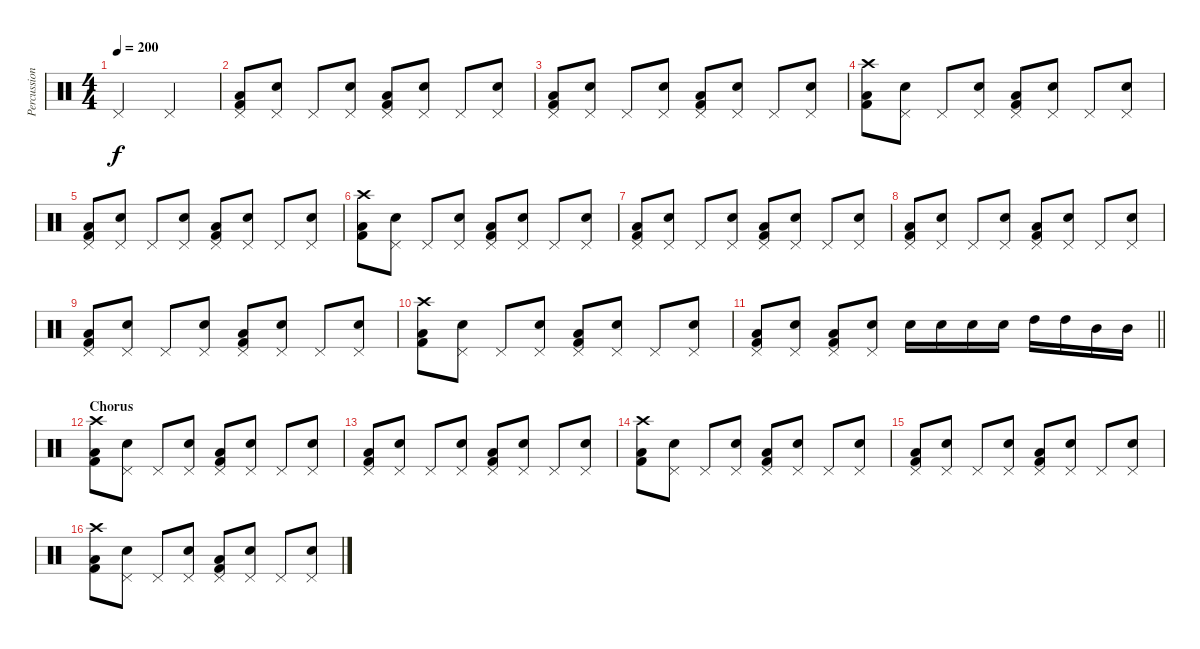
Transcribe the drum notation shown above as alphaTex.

\track ("Percussion" "Percussion") {instrument percussion}
\staff {score}
\articulation defaults
\ts (4 4)
\tempo 200
\clef neutral
\ks c "Pedal Hi-Hat (hit)".2{dy f} "Pedal Hi-Hat (hit)".2
|
("Kick (hit) 2" "Low Floor Tom (hit)" "Pedal Hi-Hat (hit)").8 ("Electric Snare (hit)" "Pedal Hi-Hat (hit)").8 "Pedal Hi-Hat (hit)".8 ("Electric Snare (hit)" "Pedal Hi-Hat (hit)").8 ("Kick (hit) 2" "Low Floor Tom (hit)" "Pedal Hi-Hat (hit)").8 ("Electric Snare (hit)" "Pedal Hi-Hat (hit)").8 "Pedal Hi-Hat (hit)".8 ("Electric Snare (hit)" "Pedal Hi-Hat (hit)").8 |
("Kick (hit) 2" "Low Floor Tom (hit)" "Pedal Hi-Hat (hit)").8 ("Electric Snare (hit)" "Pedal Hi-Hat (hit)").8 "Pedal Hi-Hat (hit)".8 ("Electric Snare (hit)" "Pedal Hi-Hat (hit)").8 ("Kick (hit) 2" "Low Floor Tom (hit)" "Pedal Hi-Hat (hit)").8 ("Electric Snare (hit)" "Pedal Hi-Hat (hit)").8 "Pedal Hi-Hat (hit)".8 ("Electric Snare (hit)" "Pedal Hi-Hat (hit)").8 |
("Kick (hit) 2" "Low Floor Tom (hit)" "Crash high (hit)").8 ("Electric Snare (hit)" "Pedal Hi-Hat (hit)").8 "Pedal Hi-Hat (hit)".8 ("Electric Snare (hit)" "Pedal Hi-Hat (hit)").8 ("Kick (hit) 2" "Low Floor Tom (hit)" "Pedal Hi-Hat (hit)").8 ("Electric Snare (hit)" "Pedal Hi-Hat (hit)").8 "Pedal Hi-Hat (hit)".8 ("Electric Snare (hit)" "Pedal Hi-Hat (hit)").8 |
("Kick (hit) 2" "Low Floor Tom (hit)" "Pedal Hi-Hat (hit)").8 ("Electric Snare (hit)" "Pedal Hi-Hat (hit)").8 "Pedal Hi-Hat (hit)".8 ("Electric Snare (hit)" "Pedal Hi-Hat (hit)").8 ("Kick (hit) 2" "Low Floor Tom (hit)" "Pedal Hi-Hat (hit)").8 ("Electric Snare (hit)" "Pedal Hi-Hat (hit)").8 "Pedal Hi-Hat (hit)".8 ("Electric Snare (hit)" "Pedal Hi-Hat (hit)").8 |
("Kick (hit) 2" "Low Floor Tom (hit)" "Crash high (hit)").8 ("Electric Snare (hit)" "Pedal Hi-Hat (hit)").8 "Pedal Hi-Hat (hit)".8 ("Electric Snare (hit)" "Pedal Hi-Hat (hit)").8 ("Kick (hit) 2" "Low Floor Tom (hit)" "Pedal Hi-Hat (hit)").8 ("Electric Snare (hit)" "Pedal Hi-Hat (hit)").8 "Pedal Hi-Hat (hit)".8 ("Electric Snare (hit)" "Pedal Hi-Hat (hit)").8 |
("Kick (hit) 2" "Low Floor Tom (hit)" "Pedal Hi-Hat (hit)").8 ("Electric Snare (hit)" "Pedal Hi-Hat (hit)").8 "Pedal Hi-Hat (hit)".8 ("Electric Snare (hit)" "Pedal Hi-Hat (hit)").8 ("Kick (hit) 2" "Low Floor Tom (hit)" "Pedal Hi-Hat (hit)").8 ("Electric Snare (hit)" "Pedal Hi-Hat (hit)").8 "Pedal Hi-Hat (hit)".8 ("Electric Snare (hit)" "Pedal Hi-Hat (hit)").8 |
("Kick (hit) 2" "Low Floor Tom (hit)" "Pedal Hi-Hat (hit)").8 ("Electric Snare (hit)" "Pedal Hi-Hat (hit)").8 "Pedal Hi-Hat (hit)".8 ("Electric Snare (hit)" "Pedal Hi-Hat (hit)").8 ("Kick (hit) 2" "Low Floor Tom (hit)" "Pedal Hi-Hat (hit)").8 ("Electric Snare (hit)" "Pedal Hi-Hat (hit)").8 "Pedal Hi-Hat (hit)".8 ("Electric Snare (hit)" "Pedal Hi-Hat (hit)").8 |
("Kick (hit) 2" "Low Floor Tom (hit)" "Pedal Hi-Hat (hit)").8 ("Electric Snare (hit)" "Pedal Hi-Hat (hit)").8 "Pedal Hi-Hat (hit)".8 ("Electric Snare (hit)" "Pedal Hi-Hat (hit)").8 ("Kick (hit) 2" "Low Floor Tom (hit)" "Pedal Hi-Hat (hit)").8 ("Electric Snare (hit)" "Pedal Hi-Hat (hit)").8 "Pedal Hi-Hat (hit)".8 ("Electric Snare (hit)" "Pedal Hi-Hat (hit)").8 |
("Kick (hit) 2" "Low Floor Tom (hit)" "Crash high (hit)").8 ("Electric Snare (hit)" "Pedal Hi-Hat (hit)").8 "Pedal Hi-Hat (hit)".8 ("Electric Snare (hit)" "Pedal Hi-Hat (hit)").8 ("Kick (hit) 2" "Low Floor Tom (hit)" "Pedal Hi-Hat (hit)").8 ("Electric Snare (hit)" "Pedal Hi-Hat (hit)").8 "Pedal Hi-Hat (hit)".8 ("Electric Snare (hit)" "Pedal Hi-Hat (hit)").8 |
\barLineRight lightlight
("Kick (hit) 2" "Low Floor Tom (hit)" "Pedal Hi-Hat (hit)").8 ("Electric Snare (hit)" "Pedal Hi-Hat (hit)").8 ("Kick (hit) 2" "Low Floor Tom (hit)" "Pedal Hi-Hat (hit)").8 ("Electric Snare (hit)" "Pedal Hi-Hat (hit)").8 "Electric Snare (hit)".16 "Electric Snare (hit)".16 "Electric Snare (hit)".16 "Electric Snare (hit)".16 "High Tom (hit)".16 "High Tom (hit)".16 "Mid Tom (hit)".16 "Mid Tom (hit)".16 |
\section ("" "Chorus")
("Kick (hit) 2" "Low Floor Tom (hit)" "Crash high (hit)").8 ("Electric Snare (hit)" "Pedal Hi-Hat (hit)").8 "Pedal Hi-Hat (hit)".8 ("Electric Snare (hit)" "Pedal Hi-Hat (hit)").8 ("Kick (hit) 2" "Low Floor Tom (hit)" "Pedal Hi-Hat (hit)").8 ("Electric Snare (hit)" "Pedal Hi-Hat (hit)").8 "Pedal Hi-Hat (hit)".8 ("Electric Snare (hit)" "Pedal Hi-Hat (hit)").8 |
("Kick (hit) 2" "Low Floor Tom (hit)" "Pedal Hi-Hat (hit)").8 ("Electric Snare (hit)" "Pedal Hi-Hat (hit)").8 "Pedal Hi-Hat (hit)".8 ("Electric Snare (hit)" "Pedal Hi-Hat (hit)").8 ("Kick (hit) 2" "Low Floor Tom (hit)" "Pedal Hi-Hat (hit)").8 ("Electric Snare (hit)" "Pedal Hi-Hat (hit)").8 "Pedal Hi-Hat (hit)".8 ("Electric Snare (hit)" "Pedal Hi-Hat (hit)").8 |
("Kick (hit) 2" "Low Floor Tom (hit)" "Crash high (hit)").8 ("Electric Snare (hit)" "Pedal Hi-Hat (hit)").8 "Pedal Hi-Hat (hit)".8 ("Electric Snare (hit)" "Pedal Hi-Hat (hit)").8 ("Kick (hit) 2" "Low Floor Tom (hit)" "Pedal Hi-Hat (hit)").8 ("Electric Snare (hit)" "Pedal Hi-Hat (hit)").8 "Pedal Hi-Hat (hit)".8 ("Electric Snare (hit)" "Pedal Hi-Hat (hit)").8 |
("Kick (hit) 2" "Low Floor Tom (hit)" "Pedal Hi-Hat (hit)").8 ("Electric Snare (hit)" "Pedal Hi-Hat (hit)").8 "Pedal Hi-Hat (hit)".8 ("Electric Snare (hit)" "Pedal Hi-Hat (hit)").8 ("Kick (hit) 2" "Low Floor Tom (hit)" "Pedal Hi-Hat (hit)").8 ("Electric Snare (hit)" "Pedal Hi-Hat (hit)").8 "Pedal Hi-Hat (hit)".8 ("Electric Snare (hit)" "Pedal Hi-Hat (hit)").8 |
("Kick (hit) 2" "Low Floor Tom (hit)" "Crash high (hit)").8 ("Electric Snare (hit)" "Pedal Hi-Hat (hit)").8 "Pedal Hi-Hat (hit)".8 ("Electric Snare (hit)" "Pedal Hi-Hat (hit)").8 ("Kick (hit) 2" "Low Floor Tom (hit)" "Pedal Hi-Hat (hit)").8 ("Electric Snare (hit)" "Pedal Hi-Hat (hit)").8 "Pedal Hi-Hat (hit)".8 ("Electric Snare (hit)" "Pedal Hi-Hat (hit)").8
